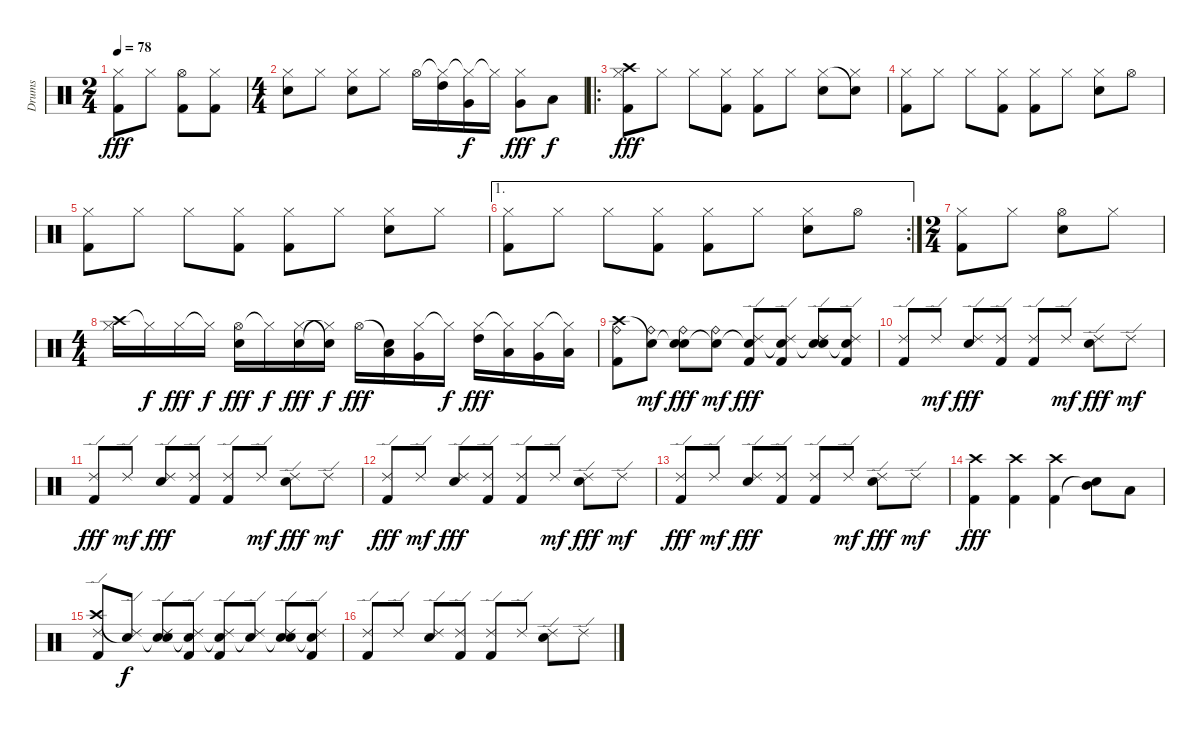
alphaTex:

\track ("Drums" "Drums") {instrument percussion}
\staff {score}
\articulation defaults
\ts (2 4)
\tempo 78
\clef neutral
\ks c
("Hi-Hat (closed)" "Kick (hit) 2").8{dy fff} "Hi-Hat (closed)".8 ("Hi-Hat (open)" "Kick (hit) 2").8 ("Hi-Hat (closed)" "Kick (hit) 2").8 |
\ts (4 4)
("Hi-Hat (closed)" "Snare (hit) 2").8 "Hi-Hat (closed)".8 ("Hi-Hat (closed)" "Snare (hit) 2").8 "Hi-Hat (closed)".8 "Hi-Hat (open)".16 ("Hi-Hat (closed)"{t} "High Tom (hit)").16 ("Hi-Hat (closed)"{t} "Very Low Tom (hit)").16{dy f} "Hi-Hat (closed)"{t}.16 ("Hi-Hat (closed)" "Very Low Tom (hit)").8{dy fff} "Low Floor Tom (hit)".8{dy f} |
\ro
("Crash high (hit)" "Hi-Hat (closed)" "Kick (hit) 2").8{dy fff} "Hi-Hat (closed)".8 "Hi-Hat (closed)".8 ("Hi-Hat (closed)" "Kick (hit) 2").8 ("Hi-Hat (closed)" "Kick (hit) 2").8 "Hi-Hat (closed)".8 ("Hi-Hat (closed)" "Snare (hit) 2").8 ("Snare (hit)"{t} "Hi-Hat (closed)").8 |
("Hi-Hat (closed)" "Kick (hit) 2").8 "Hi-Hat (closed)".8 "Hi-Hat (closed)".8 ("Hi-Hat (closed)" "Kick (hit) 2").8 ("Hi-Hat (closed)" "Kick (hit) 2").8 "Hi-Hat (closed)".8 ("Hi-Hat (closed)" "Snare (hit) 2").8 "Hi-Hat (open)".8 |
("Hi-Hat (closed)" "Kick (hit) 2").8 "Hi-Hat (closed)".8 "Hi-Hat (closed)".8 ("Hi-Hat (closed)" "Kick (hit) 2").8 ("Hi-Hat (closed)" "Kick (hit) 2").8 "Hi-Hat (closed)".8 ("Hi-Hat (closed)" "Snare (hit) 2").8 "Hi-Hat (closed)".8 |
\ae 1
\rc 2
("Hi-Hat (closed)" "Kick (hit) 2").8 "Hi-Hat (closed)".8 "Hi-Hat (closed)".8 ("Hi-Hat (closed)" "Kick (hit) 2").8 ("Hi-Hat (closed)" "Kick (hit) 2").8 "Hi-Hat (closed)".8 ("Hi-Hat (closed)" "Snare (hit) 2").8 "Hi-Hat (open)".8 |
\ts (2 4)
("Hi-Hat (closed)" "Kick (hit) 2").8 "Hi-Hat (closed)".8 ("Hi-Hat (open)" "Snare (hit) 2").8 "Hi-Hat (closed)".8 |
\ts (4 4)
("Crash high (hit)" "Hi-Hat (closed)").16 "Hi-Hat (closed)"{t}.16{dy f} "Hi-Hat (closed)".16{dy fff} "Hi-Hat (closed)"{t}.16{dy f} ("Hi-Hat (open)" "Snare (hit) 2").16{dy fff} "Hi-Hat (closed)"{t}.16{dy f} ("Hi-Hat (closed)" "Snare (hit) 2").16{dy fff} ("Snare (hit)"{t} "Hi-Hat (closed)"{t}).16{dy f} "Hi-Hat (open)".16{dy fff} ("Snare (hit)"{t} "Low Tom (hit)").16 ("Hi-Hat (closed)" "Very Low Tom (hit)").16 "Hi-Hat (closed)"{t}.16{dy f} ("Hi-Hat (closed)" "High Tom (hit)").16{dy fff} ("Hi-Hat (closed)"{t} "Low Tom (hit)").16 ("Hi-Hat (closed)" "Very Low Tom (hit)").16 ("Hi-Hat (closed)"{t} "Low Floor Tom (hit)").16 |
("Crash high (hit)" "Ride (bell)" "Kick (hit) 2").8 ("Snare (hit)"{t} "Ride (bell)").8{dy mf} ("Snare (hit)"{t} "Ride (bell)" "Snare (hit) 2").8{dy fff} ("Snare (hit)"{t} "Ride (bell)").8{dy mf} ("Snare (hit)"{t} "Ride (edge) 2" "Kick (hit) 2").8{dy fff} ("Snare (hit)"{t} "Ride (edge) 2" "Kick (hit) 2").8 ("Snare (hit)"{t} "Ride (edge) 2" "Snare (hit) 2").8 ("Snare (hit)"{t} "Ride (edge) 2" "Kick (hit) 2").8 |
("Ride (edge) 2" "Kick (hit) 2").8 "Ride (edge) 2".8{dy mf} ("Ride (edge) 2" "Snare (hit) 2").8{dy fff} ("Ride (edge) 2" "Kick (hit) 2").8 ("Ride (edge) 2" "Kick (hit) 2").8 "Ride (edge) 2".8{dy mf} ("Ride (edge) 2" "Snare (hit) 2").8{dy fff} "Ride (edge) 2".8{dy mf} |
("Ride (edge) 2" "Kick (hit) 2").8{dy fff} "Ride (edge) 2".8{dy mf} ("Ride (edge) 2" "Snare (hit) 2").8{dy fff} ("Ride (edge) 2" "Kick (hit) 2").8 ("Ride (edge) 2" "Kick (hit) 2").8 "Ride (edge) 2".8{dy mf} ("Ride (edge) 2" "Snare (hit) 2").8{dy fff} "Ride (edge) 2".8{dy mf} |
("Ride (edge) 2" "Kick (hit) 2").8{dy fff} "Ride (edge) 2".8{dy mf} ("Ride (edge) 2" "Snare (hit) 2").8{dy fff} ("Ride (edge) 2" "Kick (hit) 2").8 ("Ride (edge) 2" "Kick (hit) 2").8 "Ride (edge) 2".8{dy mf} ("Ride (edge) 2" "Snare (hit) 2").8{dy fff} "Ride (edge) 2".8{dy mf} |
("Ride (edge) 2" "Kick (hit) 2").8{dy fff} "Ride (edge) 2".8{dy mf} ("Ride (edge) 2" "Snare (hit) 2").8{dy fff} ("Ride (edge) 2" "Kick (hit) 2").8 ("Ride (edge) 2" "Kick (hit) 2").8 "Ride (edge) 2".8{dy mf} ("Ride (edge) 2" "Snare (hit) 2").8{dy fff} "Ride (edge) 2".8{dy mf} |
("Crash high (hit)" "Kick (hit) 2").4{dy fff} ("Crash high (hit)" "Kick (hit) 2").4 ("Crash high (hit)" "Kick (hit) 2").4 ("Mid Tom (hit)" "Snare (hit)"{t}).8 "Low Tom (hit)".8 |
("Crash high (hit)" "Ride (edge) 2" "Kick (hit) 2").8 ("Snare (hit)"{t} "Ride (edge) 2").8{dy f} ("Snare (hit)"{t} "Ride (edge) 2" "Snare (hit) 2").8 ("Snare (hit)"{t} "Ride (edge) 2" "Kick (hit) 2").8 ("Snare (hit)"{t} "Ride (edge) 2" "Kick (hit) 2").8 ("Snare (hit)"{t} "Ride (edge) 2").8 ("Snare (hit)"{t} "Ride (edge) 2" "Snare (hit) 2").8 ("Snare (hit)"{t} "Ride (edge) 2" "Kick (hit) 2").8 |
("Ride (edge) 2" "Kick (hit) 2").8 "Ride (edge) 2".8 ("Ride (edge) 2" "Snare (hit) 2").8 ("Ride (edge) 2" "Kick (hit) 2").8 ("Ride (edge) 2" "Kick (hit) 2").8 "Ride (edge) 2".8 ("Ride (edge) 2" "Snare (hit) 2").8 "Ride (edge) 2".8
